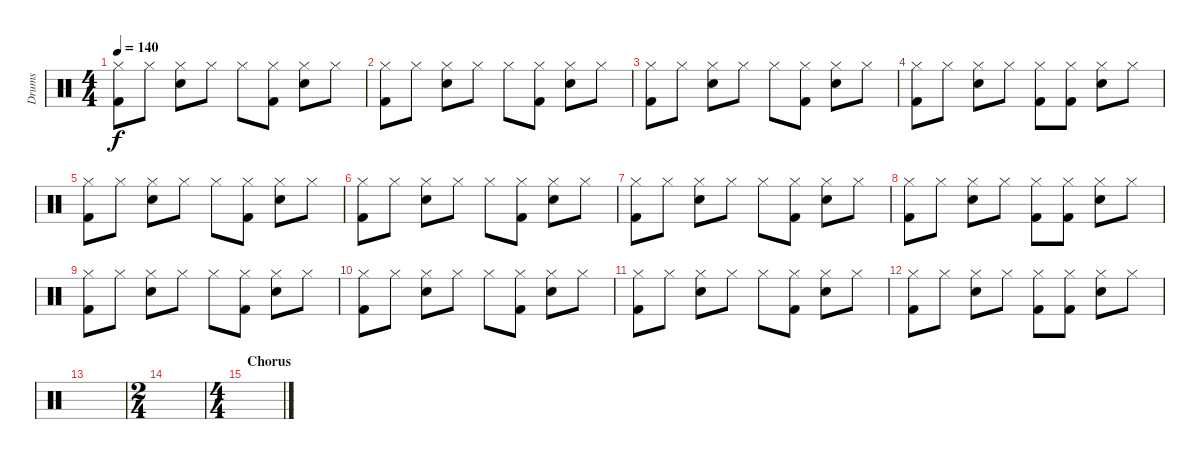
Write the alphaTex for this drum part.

\track ("Drums" "Drums") {instrument percussion}
\staff {score}
\articulation defaults
\ts (4 4)
\tempo 140
\clef neutral
\ks c
("Hi-Hat (closed)" "Kick (hit) 2").8{dy f} "Hi-Hat (closed)".8 ("Hi-Hat (closed)" "Snare (hit) 2").8 "Hi-Hat (closed)".8 "Hi-Hat (closed)".8 ("Hi-Hat (closed)" "Kick (hit) 2").8 ("Hi-Hat (closed)" "Snare (hit) 2").8 "Hi-Hat (closed)".8 |
("Hi-Hat (closed)" "Kick (hit) 2").8 "Hi-Hat (closed)".8 ("Hi-Hat (closed)" "Snare (hit) 2").8 "Hi-Hat (closed)".8 "Hi-Hat (closed)".8 ("Hi-Hat (closed)" "Kick (hit) 2").8 ("Hi-Hat (closed)" "Snare (hit) 2").8 "Hi-Hat (closed)".8 |
("Hi-Hat (closed)" "Kick (hit) 2").8 "Hi-Hat (closed)".8 ("Hi-Hat (closed)" "Snare (hit) 2").8 "Hi-Hat (closed)".8 "Hi-Hat (closed)".8 ("Hi-Hat (closed)" "Kick (hit) 2").8 ("Hi-Hat (closed)" "Snare (hit) 2").8 "Hi-Hat (closed)".8 |
("Hi-Hat (closed)" "Kick (hit) 2").8 "Hi-Hat (closed)".8 ("Hi-Hat (closed)" "Snare (hit) 2").8 "Hi-Hat (closed)".8 ("Hi-Hat (closed)" "Kick (hit) 2").8 ("Hi-Hat (closed)" "Kick (hit) 2").8 ("Hi-Hat (closed)" "Snare (hit) 2").8 "Hi-Hat (closed)".8 |
("Hi-Hat (closed)" "Kick (hit) 2").8 "Hi-Hat (closed)".8 ("Hi-Hat (closed)" "Snare (hit) 2").8 "Hi-Hat (closed)".8 "Hi-Hat (closed)".8 ("Hi-Hat (closed)" "Kick (hit) 2").8 ("Hi-Hat (closed)" "Snare (hit) 2").8 "Hi-Hat (closed)".8 |
("Hi-Hat (closed)" "Kick (hit) 2").8 "Hi-Hat (closed)".8 ("Hi-Hat (closed)" "Snare (hit) 2").8 "Hi-Hat (closed)".8 "Hi-Hat (closed)".8 ("Hi-Hat (closed)" "Kick (hit) 2").8 ("Hi-Hat (closed)" "Snare (hit) 2").8 "Hi-Hat (closed)".8 |
("Hi-Hat (closed)" "Kick (hit) 2").8 "Hi-Hat (closed)".8 ("Hi-Hat (closed)" "Snare (hit) 2").8 "Hi-Hat (closed)".8 "Hi-Hat (closed)".8 ("Hi-Hat (closed)" "Kick (hit) 2").8 ("Hi-Hat (closed)" "Snare (hit) 2").8 "Hi-Hat (closed)".8 |
("Hi-Hat (closed)" "Kick (hit) 2").8 "Hi-Hat (closed)".8 ("Hi-Hat (closed)" "Snare (hit) 2").8 "Hi-Hat (closed)".8 ("Hi-Hat (closed)" "Kick (hit) 2").8 ("Hi-Hat (closed)" "Kick (hit) 2").8 ("Hi-Hat (closed)" "Snare (hit) 2").8 "Hi-Hat (closed)".8 |
("Hi-Hat (closed)" "Kick (hit) 2").8 "Hi-Hat (closed)".8 ("Hi-Hat (closed)" "Snare (hit) 2").8 "Hi-Hat (closed)".8 "Hi-Hat (closed)".8 ("Hi-Hat (closed)" "Kick (hit) 2").8 ("Hi-Hat (closed)" "Snare (hit) 2").8 "Hi-Hat (closed)".8 |
("Hi-Hat (closed)" "Kick (hit) 2").8 "Hi-Hat (closed)".8 ("Hi-Hat (closed)" "Snare (hit) 2").8 "Hi-Hat (closed)".8 "Hi-Hat (closed)".8 ("Hi-Hat (closed)" "Kick (hit) 2").8 ("Hi-Hat (closed)" "Snare (hit) 2").8 "Hi-Hat (closed)".8 |
("Hi-Hat (closed)" "Kick (hit) 2").8 "Hi-Hat (closed)".8 ("Hi-Hat (closed)" "Snare (hit) 2").8 "Hi-Hat (closed)".8 "Hi-Hat (closed)".8 ("Hi-Hat (closed)" "Kick (hit) 2").8 ("Hi-Hat (closed)" "Snare (hit) 2").8 "Hi-Hat (closed)".8 |
("Hi-Hat (closed)" "Kick (hit) 2").8 "Hi-Hat (closed)".8 ("Hi-Hat (closed)" "Snare (hit) 2").8 "Hi-Hat (closed)".8 ("Hi-Hat (closed)" "Kick (hit) 2").8 ("Hi-Hat (closed)" "Kick (hit) 2").8 ("Hi-Hat (closed)" "Snare (hit) 2").8 "Hi-Hat (closed)".8 |
|
\ts (2 4)
|
\ts (4 4)
\section ("" "Chorus")
